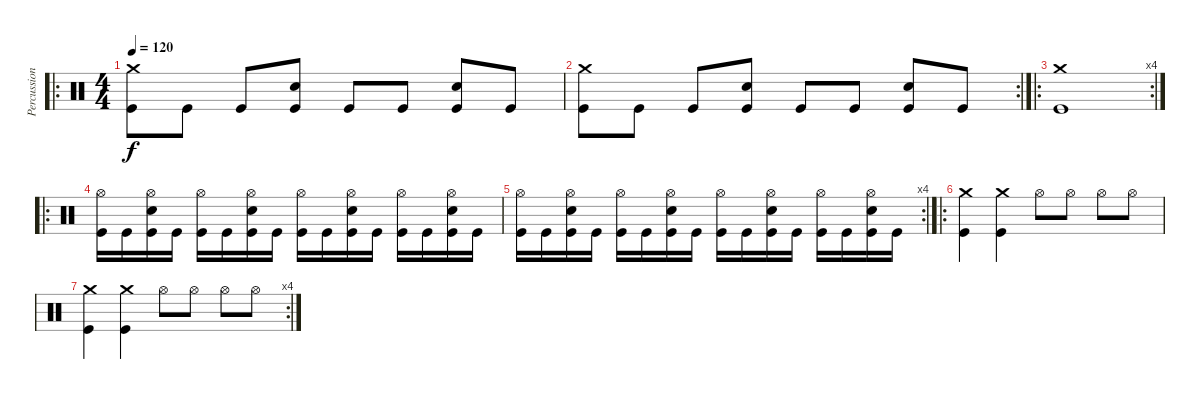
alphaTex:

\track ("Percussion" "Percussion") {instrument percussion}
\staff {score}
\articulation defaults
\ro
\ts (4 4)
\tempo 120
\clef neutral
\ks c
("Crash medium (hit)" "Kick (hit)").8{dy f} "Kick (hit)".8 "Kick (hit)".8 ("Snare (hit) 2" "Kick (hit)").8 "Kick (hit)".8 "Kick (hit)".8 ("Snare (hit) 2" "Kick (hit)").8 "Kick (hit)".8 |
\rc 2
("Crash medium (hit)" "Kick (hit)").8 "Kick (hit)".8 "Kick (hit)".8 ("Snare (hit) 2" "Kick (hit)").8 "Kick (hit)".8 "Kick (hit)".8 ("Snare (hit) 2" "Kick (hit)").8 "Kick (hit)".8 |
\ro
\rc 4
("Crash medium (hit)" "Kick (hit)").1 |
\ro
("Hi-Hat (open)" "Kick (hit)").16 "Kick (hit)".16 ("Hi-Hat (open)" "Snare (hit) 2" "Kick (hit)").16 "Kick (hit)".16 ("Hi-Hat (open)" "Kick (hit)").16 "Kick (hit)".16 ("Hi-Hat (open)" "Snare (hit) 2" "Kick (hit)").16 "Kick (hit)".16 ("Hi-Hat (open)" "Kick (hit)").16 "Kick (hit)".16 ("Hi-Hat (open)" "Snare (hit) 2" "Kick (hit)").16 "Kick (hit)".16 ("Hi-Hat (open)" "Kick (hit)").16 "Kick (hit)".16 ("Hi-Hat (open)" "Snare (hit) 2" "Kick (hit)").16 "Kick (hit)".16 |
\rc 4
("Hi-Hat (open)" "Kick (hit)").16 "Kick (hit)".16 ("Hi-Hat (open)" "Snare (hit) 2" "Kick (hit)").16 "Kick (hit)".16 ("Hi-Hat (open)" "Kick (hit)").16 "Kick (hit)".16 ("Hi-Hat (open)" "Snare (hit) 2" "Kick (hit)").16 "Kick (hit)".16 ("Hi-Hat (open)" "Kick (hit)").16 "Kick (hit)".16 ("Hi-Hat (open)" "Snare (hit) 2" "Kick (hit)").16 "Kick (hit)".16 ("Hi-Hat (open)" "Kick (hit)").16 "Kick (hit)".16 ("Hi-Hat (open)" "Snare (hit) 2" "Kick (hit)").16 "Kick (hit)".16 |
\ro
("Crash medium (hit)" "Kick (hit)").4 ("Crash medium (hit)" "Kick (hit)").4 "Hi-Hat (open)".8 "Hi-Hat (open)".8 "Hi-Hat (open)".8 "Hi-Hat (open)".8 |
\rc 4
("Crash medium (hit)" "Kick (hit)").4 ("Crash medium (hit)" "Kick (hit)").4 "Hi-Hat (open)".8 "Hi-Hat (open)".8 "Hi-Hat (open)".8 "Hi-Hat (open)".8
